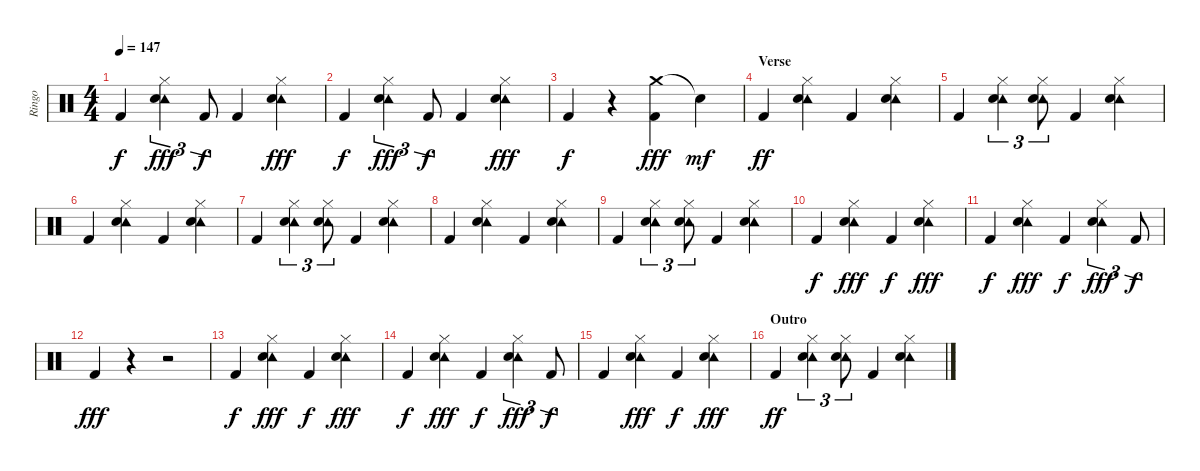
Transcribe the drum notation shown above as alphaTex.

\track ("Ringo" "Ringo") {instrument percussion}
\staff {score}
\articulation defaults
\ts (4 4)
\tempo 147
\clef neutral
\ks c "Kick (hit) 2".4{dy f}
("Tambourine (hit)" "Hi-Hat (closed)" "Snare (hit) 2").4{tu (3 2) dy fff} "Kick (hit) 2".8{tu (3 2) dy f} "Kick (hit) 2".4 ("Tambourine (hit)" "Hi-Hat (closed)" "Snare (hit) 2").4{dy fff} |
"Kick (hit) 2".4{dy f} ("Tambourine (hit)" "Hi-Hat (closed)" "Snare (hit) 2").4{tu (3 2) dy fff} "Kick (hit) 2".8{tu (3 2) dy f} "Kick (hit) 2".4 ("Tambourine (hit)" "Hi-Hat (closed)" "Snare (hit) 2").4{dy fff} |
"Kick (hit) 2".4{dy f} r.4 ("Crash medium (hit)" "Kick (hit) 2").4{dy fff} "Snare (hit)"{t}.4{dy mf} |
\section ("" "Verse")
"Kick (hit) 2".4{dy ff} ("Tambourine (hit)" "Hi-Hat (closed)" "Snare (hit) 2").4 "Kick (hit) 2".4 ("Tambourine (hit)" "Hi-Hat (closed)" "Snare (hit) 2").4 |
"Kick (hit) 2".4 ("Tambourine (hit)" "Hi-Hat (closed)" "Snare (hit) 2").4{tu (3 2)} ("Tambourine (hit)" "Hi-Hat (closed)" "Snare (hit) 2").8{tu (3 2)} "Kick (hit) 2".4 ("Tambourine (hit)" "Hi-Hat (closed)" "Snare (hit) 2").4 |
"Kick (hit) 2".4 ("Tambourine (hit)" "Hi-Hat (closed)" "Snare (hit) 2").4 "Kick (hit) 2".4 ("Tambourine (hit)" "Hi-Hat (closed)" "Snare (hit) 2").4 |
"Kick (hit) 2".4 ("Tambourine (hit)" "Hi-Hat (closed)" "Snare (hit) 2").4{tu (3 2)} ("Tambourine (hit)" "Hi-Hat (closed)" "Snare (hit) 2").8{tu (3 2)} "Kick (hit) 2".4 ("Tambourine (hit)" "Hi-Hat (closed)" "Snare (hit) 2").4 |
"Kick (hit) 2".4 ("Tambourine (hit)" "Hi-Hat (closed)" "Snare (hit) 2").4 "Kick (hit) 2".4 ("Tambourine (hit)" "Hi-Hat (closed)" "Snare (hit) 2").4 |
"Kick (hit) 2".4 ("Tambourine (hit)" "Hi-Hat (closed)" "Snare (hit) 2").4{tu (3 2)} ("Tambourine (hit)" "Hi-Hat (closed)" "Snare (hit) 2").8{tu (3 2)} "Kick (hit) 2".4 ("Tambourine (hit)" "Hi-Hat (closed)" "Snare (hit) 2").4 |
"Kick (hit) 2".4{dy f} ("Tambourine (hit)" "Hi-Hat (closed)" "Snare (hit) 2").4{dy fff} "Kick (hit) 2".4{dy f} ("Tambourine (hit)" "Hi-Hat (closed)" "Snare (hit) 2").4{dy fff} |
"Kick (hit) 2".4{dy f} ("Tambourine (hit)" "Hi-Hat (closed)" "Snare (hit) 2").4{dy fff} "Kick (hit) 2".4{dy f} ("Tambourine (hit)" "Hi-Hat (closed)" "Snare (hit) 2").4{tu (3 2) dy fff} "Kick (hit) 2".8{tu (3 2) dy f} |
"Kick (hit) 2".4{dy fff} r.4 r.2 |
"Kick (hit) 2".4{dy f} ("Tambourine (hit)" "Hi-Hat (closed)" "Snare (hit) 2").4{dy fff} "Kick (hit) 2".4{dy f} ("Tambourine (hit)" "Hi-Hat (closed)" "Snare (hit) 2").4{dy fff} |
"Kick (hit) 2".4{dy f} ("Tambourine (hit)" "Hi-Hat (closed)" "Snare (hit) 2").4{dy fff} "Kick (hit) 2".4{dy f} ("Tambourine (hit)" "Hi-Hat (closed)" "Snare (hit) 2").4{tu (3 2) dy fff} "Kick (hit) 2".8{tu (3 2) dy f} |
"Kick (hit) 2".4 ("Tambourine (hit)" "Hi-Hat (closed)" "Snare (hit) 2").4{dy fff} "Kick (hit) 2".4{dy f} ("Tambourine (hit)" "Hi-Hat (closed)" "Snare (hit) 2").4{dy fff} |
\section ("" "Outro")
"Kick (hit) 2".4{dy ff} ("Tambourine (hit)" "Hi-Hat (closed)" "Snare (hit) 2").4{tu (3 2)} ("Tambourine (hit)" "Hi-Hat (closed)" "Snare (hit) 2").8{tu (3 2)} "Kick (hit) 2".4 ("Tambourine (hit)" "Hi-Hat (closed)" "Snare (hit) 2").4
